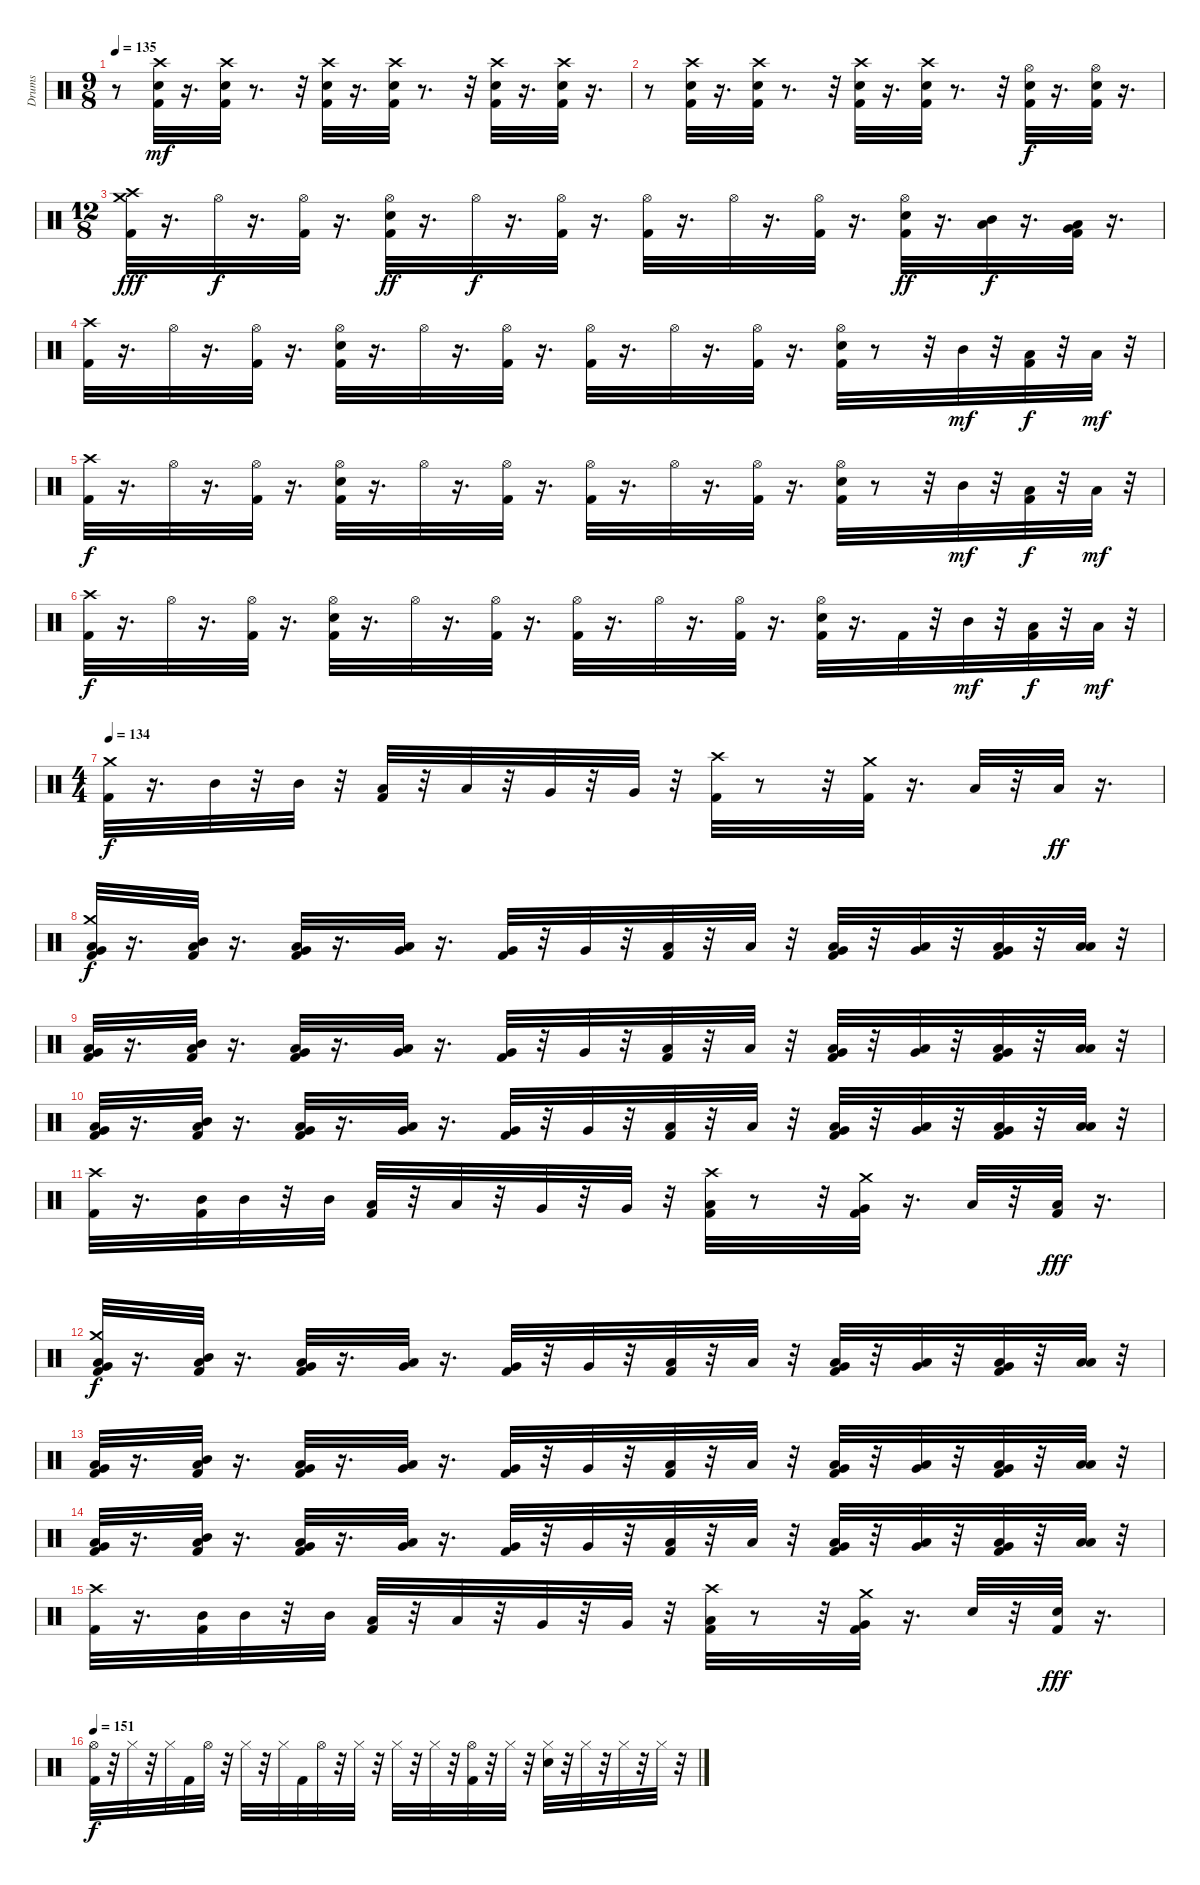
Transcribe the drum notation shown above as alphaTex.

\track ("Drums" "Drums") {instrument percussion}
\staff {score}
\articulation defaults
\ts (9 8)
\tempo 135
\clef neutral
\ks c
r.8{dy f} ("Crash high (hit)" "Electric Snare (hit)" "Kick (hit) 2").32{dy mf} r.16{d} ("Crash high (hit)" "Electric Snare (hit)" "Kick (hit) 2").32 r.8{d} r.32 ("Crash high (hit)" "Electric Snare (hit)" "Kick (hit) 2").32 r.16{d} ("Crash high (hit)" "Electric Snare (hit)" "Kick (hit) 2").32 r.8{d} r.32 ("Crash high (hit)" "Electric Snare (hit)" "Kick (hit) 2").32 r.16{d} ("Crash high (hit)" "Electric Snare (hit)" "Kick (hit) 2").32 r.16{d} |
r.8 ("Crash high (hit)" "Electric Snare (hit)" "Kick (hit) 2").32 r.16{d} ("Crash high (hit)" "Electric Snare (hit)" "Kick (hit) 2").32 r.8{d} r.32 ("Crash high (hit)" "Electric Snare (hit)" "Kick (hit) 2").32 r.16{d} ("Crash high (hit)" "Electric Snare (hit)" "Kick (hit) 2").32 r.8{d} r.32 ("Electric Snare (hit)" "Hi-Hat (open)" "Kick (hit) 2").32{dy f} r.16{d} ("Electric Snare (hit)" "Hi-Hat (open)" "Kick (hit) 2").32 r.16{d} |
\ts (12 8)
("Crash medium (hit)" "Crash high (hit)" "Kick (hit) 2").32{dy fff} r.16{d} "Hi-Hat (open)".32{dy f} r.16{d} ("Hi-Hat (open)" "Kick (hit) 2").32 r.16{d} ("Electric Snare (hit)" "Hi-Hat (open)" "Kick (hit) 2").32{dy ff} r.16{d} "Hi-Hat (open)".32{dy f} r.16{d} ("Hi-Hat (open)" "Kick (hit) 2").32 r.16{d} ("Hi-Hat (open)" "Kick (hit) 2").32 r.16{d} "Hi-Hat (open)".32 r.16{d} ("Hi-Hat (open)" "Kick (hit) 2").32 r.16{d} ("Electric Snare (hit)" "Hi-Hat (open)" "Kick (hit) 2").32{dy ff} r.16{d} ("Low Tom (hit)" "Mid Tom (hit)").32{dy f} r.16{d} ("Very Low Tom (hit)" "Low Tom (hit)" "Kick (hit) 2").32 r.16{d} |
("Crash high (hit)" "Kick (hit) 2").32 r.16{d} "Hi-Hat (open)".32 r.16{d} ("Hi-Hat (open)" "Kick (hit) 2").32 r.16{d} ("Electric Snare (hit)" "Hi-Hat (open)" "Kick (hit) 2").32 r.16{d} "Hi-Hat (open)".32 r.16{d} ("Hi-Hat (open)" "Kick (hit) 2").32 r.16{d} ("Hi-Hat (open)" "Kick (hit) 2").32 r.16{d} "Hi-Hat (open)".32 r.16{d} ("Hi-Hat (open)" "Kick (hit) 2").32 r.16{d} ("Electric Snare (hit)" "Hi-Hat (open)" "Kick (hit) 2").32 r.8 r.32 "Mid Tom (hit)".32{dy mf} r.32 ("Low Tom (hit)" "Kick (hit) 2").32{dy f} r.32 "Low Tom (hit)".32{dy mf} r.32 |
("Crash high (hit)" "Kick (hit) 2").32{dy f} r.16{d} "Hi-Hat (open)".32 r.16{d} ("Hi-Hat (open)" "Kick (hit) 2").32 r.16{d} ("Electric Snare (hit)" "Hi-Hat (open)" "Kick (hit) 2").32 r.16{d} "Hi-Hat (open)".32 r.16{d} ("Hi-Hat (open)" "Kick (hit) 2").32 r.16{d} ("Hi-Hat (open)" "Kick (hit) 2").32 r.16{d} "Hi-Hat (open)".32 r.16{d} ("Hi-Hat (open)" "Kick (hit) 2").32 r.16{d} ("Electric Snare (hit)" "Hi-Hat (open)" "Kick (hit) 2").32 r.8 r.32 "Mid Tom (hit)".32{dy mf} r.32 ("Low Tom (hit)" "Kick (hit) 2").32{dy f} r.32 "Low Tom (hit)".32{dy mf} r.32 |
("Crash high (hit)" "Kick (hit) 2").32{dy f} r.16{d} "Hi-Hat (open)".32 r.16{d} ("Hi-Hat (open)" "Kick (hit) 2").32 r.16{d} ("Electric Snare (hit)" "Hi-Hat (open)" "Kick (hit) 2").32 r.16{d} "Hi-Hat (open)".32 r.16{d} ("Hi-Hat (open)" "Kick (hit) 2").32 r.16{d} ("Hi-Hat (open)" "Kick (hit) 2").32 r.16{d} "Hi-Hat (open)".32 r.16{d} ("Hi-Hat (open)" "Kick (hit) 2").32 r.16{d} ("Electric Snare (hit)" "Hi-Hat (open)" "Kick (hit) 2").32 r.16{d} "Kick (hit) 2".32 r.32 "Mid Tom (hit)".32{dy mf} r.32 ("Low Tom (hit)" "Kick (hit) 2").32{dy f} r.32 "Low Tom (hit)".32{dy mf} r.32 |
\ts (4 4)
\tempo 134
("Crash medium (hit)" "Kick (hit) 2").32{dy f} r.16{d} "Mid Tom (hit)".32 r.32 "Mid Tom (hit)".32 r.32 ("Low Tom (hit)" "Kick (hit) 2").32 r.32 "Low Tom (hit)".32 r.32 "Very Low Tom (hit)".32 r.32 "Very Low Tom (hit)".32 r.32 ("Crash high (hit)" "Kick (hit) 2").32 r.8 r.32 ("Crash medium (hit)" "Kick (hit) 2").32 r.16{d} "Low Tom (hit)".32 r.32 "Low Tom (hit)".32{dy ff} r.16{d} |
("Crash medium (hit)" "Very Low Tom (hit)" "Low Tom (hit)" "Kick (hit) 2").32{dy f} r.16{d} ("Low Tom (hit)" "Mid Tom (hit)" "Kick (hit) 2").32 r.16{d} ("Very Low Tom (hit)" "Low Tom (hit)" "Kick (hit) 2").32 r.16{d} ("Very Low Tom (hit)" "Low Floor Tom (hit)").32 r.16{d} ("Very Low Tom (hit)" "Kick (hit) 2").32 r.32 "Very Low Tom (hit)".32 r.32 ("Low Tom (hit)" "Kick (hit) 2").32 r.32 "Low Tom (hit)".32 r.32 ("Very Low Tom (hit)" "Low Floor Tom (hit)" "Kick (hit) 2").32 r.32 ("Low Floor Tom (hit)" "Very Low Tom (hit)").32 r.32 ("Kick (hit) 2" "Very Low Tom (hit)" "Low Tom (hit)").32 r.32 ("Low Floor Tom (hit)" "Low Tom (hit)").32 r.32 |
("Very Low Tom (hit)" "Low Tom (hit)" "Kick (hit) 2").32 r.16{d} ("Low Tom (hit)" "Mid Tom (hit)" "Kick (hit) 2").32 r.16{d} ("Very Low Tom (hit)" "Low Tom (hit)" "Kick (hit) 2").32 r.16{d} ("Very Low Tom (hit)" "Low Floor Tom (hit)").32 r.16{d} ("Very Low Tom (hit)" "Kick (hit) 2").32 r.32 "Very Low Tom (hit)".32 r.32 ("Low Tom (hit)" "Kick (hit) 2").32 r.32 "Low Tom (hit)".32 r.32 ("Very Low Tom (hit)" "Low Floor Tom (hit)" "Kick (hit) 2").32 r.32 ("Low Floor Tom (hit)" "Very Low Tom (hit)").32 r.32 ("Kick (hit) 2" "Very Low Tom (hit)" "Low Tom (hit)").32 r.32 ("Low Floor Tom (hit)" "Low Tom (hit)").32 r.32 |
("Very Low Tom (hit)" "Low Tom (hit)" "Kick (hit) 2").32 r.16{d} ("Low Tom (hit)" "Mid Tom (hit)" "Kick (hit) 2").32 r.16{d} ("Very Low Tom (hit)" "Low Tom (hit)" "Kick (hit) 2").32 r.16{d} ("Very Low Tom (hit)" "Low Floor Tom (hit)").32 r.16{d} ("Very Low Tom (hit)" "Kick (hit) 2").32 r.32 "Very Low Tom (hit)".32 r.32 ("Low Tom (hit)" "Kick (hit) 2").32 r.32 "Low Tom (hit)".32 r.32 ("Very Low Tom (hit)" "Low Floor Tom (hit)" "Kick (hit) 2").32 r.32 ("Low Floor Tom (hit)" "Very Low Tom (hit)").32 r.32 ("Kick (hit) 2" "Very Low Tom (hit)" "Low Tom (hit)").32 r.32 ("Low Floor Tom (hit)" "Low Tom (hit)").32 r.32 |
("Crash high (hit)" "Kick (hit) 2").32 r.16{d} ("Mid Tom (hit)" "Kick (hit) 2").32 "Mid Tom (hit)".32 r.32 "Mid Tom (hit)".32 ("Low Tom (hit)" "Kick (hit) 2").32 r.32 "Low Tom (hit)".32 r.32 "Very Low Tom (hit)".32 r.32 "Very Low Tom (hit)".32 r.32 ("Low Tom (hit)" "Crash high (hit)" "Kick (hit) 2").32 r.8 r.32 ("Crash medium (hit)" "Very Low Tom (hit)" "Kick (hit) 2").32 r.16{d} "Low Tom (hit)".32 r.32 ("Low Tom (hit)" "Kick (hit) 2").32{dy fff} r.16{d} |
("Crash medium (hit)" "Very Low Tom (hit)" "Low Tom (hit)" "Kick (hit) 2").32{dy f} r.16{d} ("Low Tom (hit)" "Mid Tom (hit)" "Kick (hit) 2").32 r.16{d} ("Very Low Tom (hit)" "Low Tom (hit)" "Kick (hit) 2").32 r.16{d} ("Very Low Tom (hit)" "Low Floor Tom (hit)").32 r.16{d} ("Very Low Tom (hit)" "Kick (hit) 2").32 r.32 "Very Low Tom (hit)".32 r.32 ("Low Tom (hit)" "Kick (hit) 2").32 r.32 "Low Tom (hit)".32 r.32 ("Very Low Tom (hit)" "Low Floor Tom (hit)" "Kick (hit) 2").32 r.32 ("Low Floor Tom (hit)" "Very Low Tom (hit)").32 r.32 ("Kick (hit) 2" "Very Low Tom (hit)" "Low Tom (hit)").32 r.32 ("Low Floor Tom (hit)" "Low Tom (hit)").32 r.32 |
("Very Low Tom (hit)" "Low Tom (hit)" "Kick (hit) 2").32 r.16{d} ("Low Tom (hit)" "Mid Tom (hit)" "Kick (hit) 2").32 r.16{d} ("Very Low Tom (hit)" "Low Tom (hit)" "Kick (hit) 2").32 r.16{d} ("Very Low Tom (hit)" "Low Floor Tom (hit)").32 r.16{d} ("Very Low Tom (hit)" "Kick (hit) 2").32 r.32 "Very Low Tom (hit)".32 r.32 ("Low Tom (hit)" "Kick (hit) 2").32 r.32 "Low Tom (hit)".32 r.32 ("Very Low Tom (hit)" "Low Floor Tom (hit)" "Kick (hit) 2").32 r.32 ("Low Floor Tom (hit)" "Very Low Tom (hit)").32 r.32 ("Kick (hit) 2" "Very Low Tom (hit)" "Low Tom (hit)").32 r.32 ("Low Floor Tom (hit)" "Low Tom (hit)").32 r.32 |
("Very Low Tom (hit)" "Low Tom (hit)" "Kick (hit) 2").32 r.16{d} ("Low Tom (hit)" "Mid Tom (hit)" "Kick (hit) 2").32 r.16{d} ("Very Low Tom (hit)" "Low Tom (hit)" "Kick (hit) 2").32 r.16{d} ("Very Low Tom (hit)" "Low Floor Tom (hit)").32 r.16{d} ("Very Low Tom (hit)" "Kick (hit) 2").32 r.32 "Very Low Tom (hit)".32 r.32 ("Low Tom (hit)" "Kick (hit) 2").32 r.32 "Low Tom (hit)".32 r.32 ("Very Low Tom (hit)" "Low Floor Tom (hit)" "Kick (hit) 2").32 r.32 ("Low Floor Tom (hit)" "Very Low Tom (hit)").32 r.32 ("Kick (hit) 2" "Very Low Tom (hit)" "Low Tom (hit)").32 r.32 ("Low Floor Tom (hit)" "Low Tom (hit)").32 r.32 |
("Crash high (hit)" "Kick (hit) 2").32 r.16{d} ("Mid Tom (hit)" "Kick (hit) 2").32 "Mid Tom (hit)".32 r.32 "Mid Tom (hit)".32 ("Low Tom (hit)" "Kick (hit) 2").32 r.32 "Low Tom (hit)".32 r.32 "Very Low Tom (hit)".32 r.32 "Very Low Tom (hit)".32 r.32 ("Low Tom (hit)" "Crash high (hit)" "Kick (hit) 2").32 r.8 r.32 ("Crash medium (hit)" "Very Low Tom (hit)" "Kick (hit) 2").32 r.16{d} "Electric Snare (hit)".32 r.32 ("Electric Snare (hit)" "Kick (hit) 2").32{dy fff} r.16{d} |
\tempo 151
("Hi-Hat (open)" "Kick (hit) 2").32{dy f} r.32 "Hi-Hat (closed)".32 r.32 "Hi-Hat (closed)".32 "Kick (hit) 2".32 "Hi-Hat (open)".32 r.32 "Hi-Hat (closed)".32 r.32 "Hi-Hat (closed)".32 "Kick (hit) 2".32 "Hi-Hat (open)".32 r.32 "Hi-Hat (closed)".32 r.32 "Hi-Hat (closed)".32 r.32 "Hi-Hat (closed)".32 r.32 ("Hi-Hat (open)" "Kick (hit) 2").32 r.32 "Hi-Hat (closed)".32 r.32 ("Electric Snare (hit)" "Hi-Hat (closed)").32 r.32 "Hi-Hat (closed)".32 r.32 "Hi-Hat (closed)".32 r.32 "Hi-Hat (closed)".32 r.32
